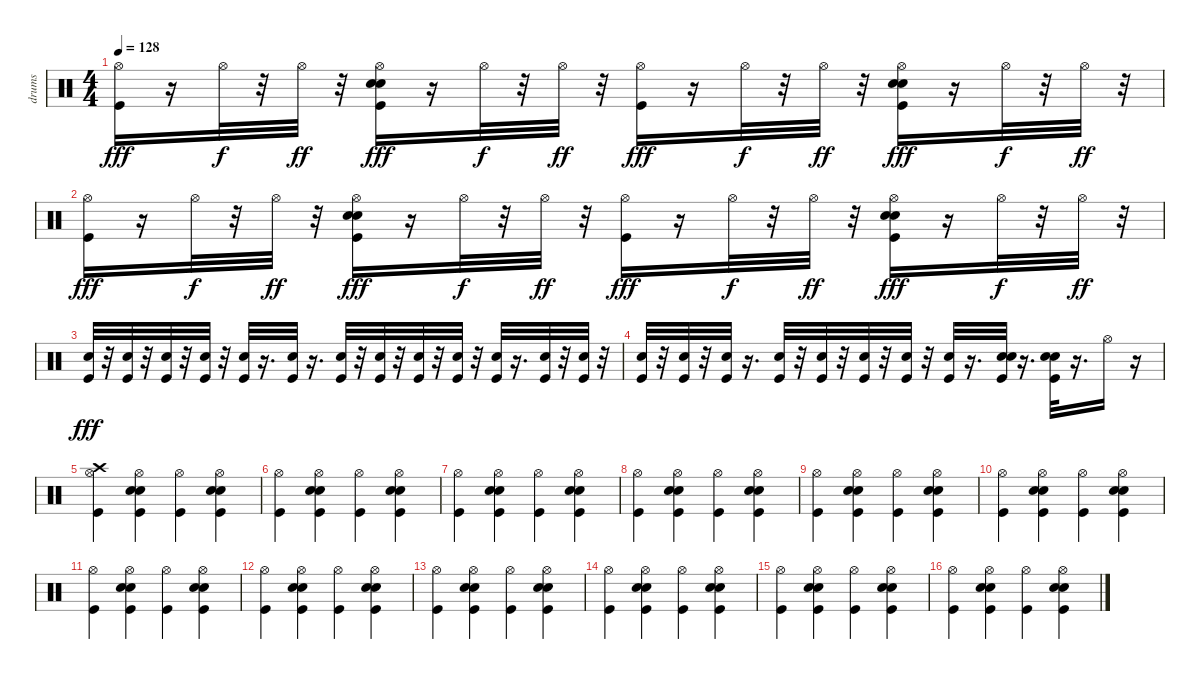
\track ("drums" "drums") {instrument percussion}
\staff {score}
\articulation defaults
\ts (4 4)
\tempo 128
\clef neutral
\ks c
("Hi-Hat (open)" "Kick (hit)").16{dy fff} r.16 "Hi-Hat (open)".32{dy f} r.32 "Hi-Hat (open)".32{dy ff} r.32 ("Snare (hit) 2" "Electric Snare (hit)" "Kick (hit)" "Hi-Hat (open)").16{dy fff} r.16 "Hi-Hat (open)".32{dy f} r.32 "Hi-Hat (open)".32{dy ff} r.32 ("Kick (hit)" "Hi-Hat (open)").16{dy fff} r.16 "Hi-Hat (open)".32{dy f} r.32 "Hi-Hat (open)".32{dy ff} r.32 ("Kick (hit)" "Snare (hit) 2" "Electric Snare (hit)" "Hi-Hat (open)").16{dy fff} r.16 "Hi-Hat (open)".32{dy f} r.32 "Hi-Hat (open)".32{dy ff} r.32 |
("Hi-Hat (open)" "Kick (hit)").16{dy fff} r.16 "Hi-Hat (open)".32{dy f} r.32 "Hi-Hat (open)".32{dy ff} r.32 ("Snare (hit) 2" "Electric Snare (hit)" "Kick (hit)" "Hi-Hat (open)").16{dy fff} r.16 "Hi-Hat (open)".32{dy f} r.32 "Hi-Hat (open)".32{dy ff} r.32 ("Kick (hit)" "Hi-Hat (open)").16{dy fff} r.16 "Hi-Hat (open)".32{dy f} r.32 "Hi-Hat (open)".32{dy ff} r.32 ("Kick (hit)" "Snare (hit) 2" "Electric Snare (hit)" "Hi-Hat (open)").16{dy fff} r.16 "Hi-Hat (open)".32{dy f} r.32 "Hi-Hat (open)".32{dy ff} r.32 |
("Kick (hit)" "Electric Snare (hit)").32{dy fff} r.32 ("Electric Snare (hit)" "Kick (hit)").32 r.32 ("Kick (hit)" "Electric Snare (hit)").32 r.32 ("Kick (hit)" "Electric Snare (hit)").32 r.32 ("Kick (hit)" "Electric Snare (hit)").32 r.16{d} ("Kick (hit)" "Electric Snare (hit)").32 r.16{d} ("Kick (hit)" "Electric Snare (hit)").32 r.32 ("Electric Snare (hit)" "Kick (hit)").32 r.32 ("Kick (hit)" "Electric Snare (hit)").32 r.32 ("Electric Snare (hit)" "Kick (hit)").32 r.32 ("Kick (hit)" "Electric Snare (hit)").32 r.16{d} ("Kick (hit)" "Electric Snare (hit)").32 r.32 ("Kick (hit)" "Electric Snare (hit)").32 r.32 |
("Kick (hit)" "Electric Snare (hit)").32 r.32 ("Electric Snare (hit)" "Kick (hit)").32 r.32 ("Kick (hit)" "Electric Snare (hit)").32 r.16{d} ("Kick (hit)" "Electric Snare (hit)").32 r.32 ("Electric Snare (hit)" "Kick (hit)").32 r.32 ("Kick (hit)" "Electric Snare (hit)").32 r.32 ("Kick (hit)" "Electric Snare (hit)").32 r.32 ("Kick (hit)" "Electric Snare (hit)").32 r.16{d} ("Kick (hit)" "Electric Snare (hit)" "Snare (hit) 2").32 r.16{d} ("Kick (hit)" "Electric Snare (hit)" "Snare (hit) 2").32 r.16{d} "Hi-Hat (open)".16 r.16 |
("Kick (hit)" "Crash high (hit)" "Hi-Hat (open)").4 ("Kick (hit)" "Snare (hit) 2" "Electric Snare (hit)" "Hi-Hat (open)").4 ("Kick (hit)" "Hi-Hat (open)").4 ("Kick (hit)" "Snare (hit) 2" "Electric Snare (hit)" "Hi-Hat (open)").4 |
("Hi-Hat (open)" "Kick (hit)").4 ("Kick (hit)" "Snare (hit) 2" "Electric Snare (hit)" "Hi-Hat (open)").4 ("Kick (hit)" "Hi-Hat (open)").4 ("Kick (hit)" "Snare (hit) 2" "Electric Snare (hit)" "Hi-Hat (open)").4 |
("Hi-Hat (open)" "Kick (hit)").4 ("Kick (hit)" "Snare (hit) 2" "Electric Snare (hit)" "Hi-Hat (open)").4 ("Kick (hit)" "Hi-Hat (open)").4 ("Kick (hit)" "Snare (hit) 2" "Electric Snare (hit)" "Hi-Hat (open)").4 |
("Hi-Hat (open)" "Kick (hit)").4 ("Kick (hit)" "Snare (hit) 2" "Electric Snare (hit)" "Hi-Hat (open)").4 ("Kick (hit)" "Hi-Hat (open)").4 ("Kick (hit)" "Snare (hit) 2" "Electric Snare (hit)" "Hi-Hat (open)").4 |
("Hi-Hat (open)" "Kick (hit)").4 ("Kick (hit)" "Snare (hit) 2" "Electric Snare (hit)" "Hi-Hat (open)").4 ("Kick (hit)" "Hi-Hat (open)").4 ("Kick (hit)" "Snare (hit) 2" "Electric Snare (hit)" "Hi-Hat (open)").4 |
("Hi-Hat (open)" "Kick (hit)").4 ("Kick (hit)" "Snare (hit) 2" "Electric Snare (hit)" "Hi-Hat (open)").4 ("Kick (hit)" "Hi-Hat (open)").4 ("Kick (hit)" "Snare (hit) 2" "Electric Snare (hit)" "Hi-Hat (open)").4 |
("Hi-Hat (open)" "Kick (hit)").4 ("Kick (hit)" "Snare (hit) 2" "Electric Snare (hit)" "Hi-Hat (open)").4 ("Kick (hit)" "Hi-Hat (open)").4 ("Kick (hit)" "Snare (hit) 2" "Electric Snare (hit)" "Hi-Hat (open)").4 |
("Hi-Hat (open)" "Kick (hit)").4 ("Kick (hit)" "Snare (hit) 2" "Electric Snare (hit)" "Hi-Hat (open)").4 ("Kick (hit)" "Hi-Hat (open)").4 ("Kick (hit)" "Snare (hit) 2" "Electric Snare (hit)" "Hi-Hat (open)").4 |
("Hi-Hat (open)" "Kick (hit)").4 ("Kick (hit)" "Snare (hit) 2" "Electric Snare (hit)" "Hi-Hat (open)").4 ("Kick (hit)" "Hi-Hat (open)").4 ("Kick (hit)" "Snare (hit) 2" "Electric Snare (hit)" "Hi-Hat (open)").4 |
("Hi-Hat (open)" "Kick (hit)").4 ("Kick (hit)" "Snare (hit) 2" "Electric Snare (hit)" "Hi-Hat (open)").4 ("Kick (hit)" "Hi-Hat (open)").4 ("Kick (hit)" "Snare (hit) 2" "Electric Snare (hit)" "Hi-Hat (open)").4 |
("Hi-Hat (open)" "Kick (hit)").4 ("Kick (hit)" "Snare (hit) 2" "Electric Snare (hit)" "Hi-Hat (open)").4 ("Kick (hit)" "Hi-Hat (open)").4 ("Kick (hit)" "Snare (hit) 2" "Electric Snare (hit)" "Hi-Hat (open)").4 |
("Hi-Hat (open)" "Kick (hit)").4 ("Kick (hit)" "Snare (hit) 2" "Electric Snare (hit)" "Hi-Hat (open)").4 ("Kick (hit)" "Hi-Hat (open)").4 ("Kick (hit)" "Snare (hit) 2" "Electric Snare (hit)" "Hi-Hat (open)").4
